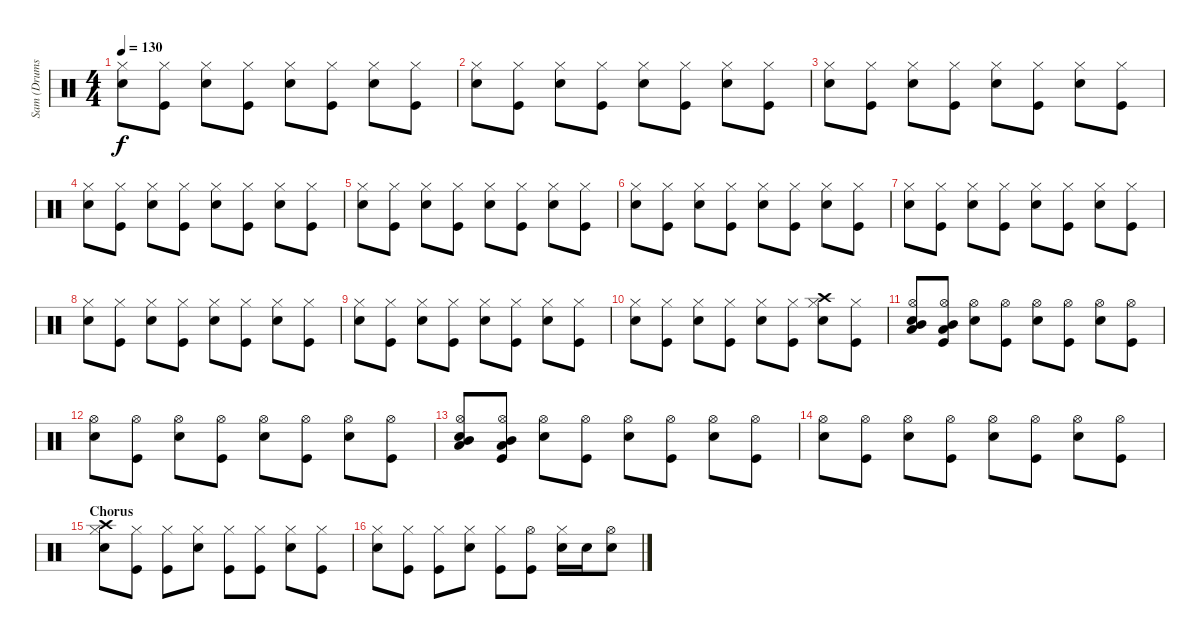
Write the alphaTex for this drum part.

\track ("Sam (Drums)" "Sam (Drums") {instrument percussion}
\staff {score}
\articulation defaults
\ts (4 4)
\tempo 130
\clef neutral
\ks c
("Hi-Hat (closed)" "Snare (hit) 2").8{dy f} ("Hi-Hat (closed)" "Kick (hit)").8 ("Hi-Hat (closed)" "Snare (hit) 2").8 ("Hi-Hat (closed)" "Kick (hit)").8 ("Hi-Hat (closed)" "Snare (hit) 2").8 ("Hi-Hat (closed)" "Kick (hit)").8 ("Hi-Hat (closed)" "Snare (hit) 2").8 ("Hi-Hat (closed)" "Kick (hit)").8 |
("Hi-Hat (closed)" "Snare (hit) 2").8 ("Hi-Hat (closed)" "Kick (hit)").8 ("Hi-Hat (closed)" "Snare (hit) 2").8 ("Hi-Hat (closed)" "Kick (hit)").8 ("Hi-Hat (closed)" "Snare (hit) 2").8 ("Hi-Hat (closed)" "Kick (hit)").8 ("Hi-Hat (closed)" "Snare (hit) 2").8 ("Hi-Hat (closed)" "Kick (hit)").8 |
("Hi-Hat (closed)" "Snare (hit) 2").8 ("Hi-Hat (closed)" "Kick (hit)").8 ("Hi-Hat (closed)" "Snare (hit) 2").8 ("Hi-Hat (closed)" "Kick (hit)").8 ("Hi-Hat (closed)" "Snare (hit) 2").8 ("Hi-Hat (closed)" "Kick (hit)").8 ("Hi-Hat (closed)" "Snare (hit) 2").8 ("Hi-Hat (closed)" "Kick (hit)").8 |
("Hi-Hat (closed)" "Snare (hit) 2").8 ("Hi-Hat (closed)" "Kick (hit)").8 ("Hi-Hat (closed)" "Snare (hit) 2").8 ("Hi-Hat (closed)" "Kick (hit)").8 ("Hi-Hat (closed)" "Snare (hit) 2").8 ("Hi-Hat (closed)" "Kick (hit)").8 ("Hi-Hat (closed)" "Snare (hit) 2").8 ("Hi-Hat (closed)" "Kick (hit)").8 |
("Hi-Hat (closed)" "Snare (hit) 2").8 ("Hi-Hat (closed)" "Kick (hit)").8 ("Hi-Hat (closed)" "Snare (hit) 2").8 ("Hi-Hat (closed)" "Kick (hit)").8 ("Hi-Hat (closed)" "Snare (hit) 2").8 ("Hi-Hat (closed)" "Kick (hit)").8 ("Hi-Hat (closed)" "Snare (hit) 2").8 ("Hi-Hat (closed)" "Kick (hit)").8 |
("Hi-Hat (closed)" "Snare (hit) 2").8 ("Hi-Hat (closed)" "Kick (hit)").8 ("Hi-Hat (closed)" "Snare (hit) 2").8 ("Hi-Hat (closed)" "Kick (hit)").8 ("Hi-Hat (closed)" "Snare (hit) 2").8 ("Hi-Hat (closed)" "Kick (hit)").8 ("Hi-Hat (closed)" "Snare (hit) 2").8 ("Hi-Hat (closed)" "Kick (hit)").8 |
("Hi-Hat (closed)" "Snare (hit) 2").8 ("Hi-Hat (closed)" "Kick (hit)").8 ("Hi-Hat (closed)" "Snare (hit) 2").8 ("Hi-Hat (closed)" "Kick (hit)").8 ("Hi-Hat (closed)" "Snare (hit) 2").8 ("Hi-Hat (closed)" "Kick (hit)").8 ("Hi-Hat (closed)" "Snare (hit) 2").8 ("Hi-Hat (closed)" "Kick (hit)").8 |
("Hi-Hat (closed)" "Snare (hit) 2").8 ("Hi-Hat (closed)" "Kick (hit)").8 ("Hi-Hat (closed)" "Snare (hit) 2").8 ("Hi-Hat (closed)" "Kick (hit)").8 ("Hi-Hat (closed)" "Snare (hit) 2").8 ("Hi-Hat (closed)" "Kick (hit)").8 ("Hi-Hat (closed)" "Snare (hit) 2").8 ("Hi-Hat (closed)" "Kick (hit)").8 |
("Hi-Hat (closed)" "Snare (hit) 2").8 ("Hi-Hat (closed)" "Kick (hit)").8 ("Hi-Hat (closed)" "Snare (hit) 2").8 ("Hi-Hat (closed)" "Kick (hit)").8 ("Hi-Hat (closed)" "Snare (hit) 2").8 ("Hi-Hat (closed)" "Kick (hit)").8 ("Hi-Hat (closed)" "Snare (hit) 2").8 ("Hi-Hat (closed)" "Kick (hit)").8 |
("Hi-Hat (closed)" "Snare (hit) 2").8 ("Hi-Hat (closed)" "Kick (hit)").8 ("Hi-Hat (closed)" "Snare (hit) 2").8 ("Hi-Hat (closed)" "Kick (hit)").8 ("Hi-Hat (closed)" "Snare (hit) 2").8 ("Hi-Hat (closed)" "Kick (hit)").8 ("Crash high (hit)" "Hi-Hat (closed)" "Snare (hit) 2").8 ("Hi-Hat (closed)" "Kick (hit)").8 |
("Hi-Hat (open)" "Low Tom (hit)" "Mid Tom (hit)" "Snare (hit) 2").8 ("Hi-Hat (open)" "Low Tom (hit)" "Mid Tom (hit)" "Kick (hit)").8 ("Hi-Hat (open)" "Snare (hit) 2").8 ("Hi-Hat (open)" "Kick (hit)").8 ("Hi-Hat (open)" "Snare (hit) 2").8 ("Hi-Hat (open)" "Kick (hit)").8 ("Hi-Hat (open)" "Snare (hit) 2").8 ("Hi-Hat (open)" "Kick (hit)").8 |
("Hi-Hat (open)" "Snare (hit) 2").8 ("Hi-Hat (open)" "Kick (hit)").8 ("Hi-Hat (open)" "Snare (hit) 2").8 ("Hi-Hat (open)" "Kick (hit)").8 ("Hi-Hat (open)" "Snare (hit) 2").8 ("Hi-Hat (open)" "Kick (hit)").8 ("Hi-Hat (open)" "Snare (hit) 2").8 ("Hi-Hat (open)" "Kick (hit)").8 |
("Hi-Hat (open)" "Low Tom (hit)" "Mid Tom (hit)" "Snare (hit) 2").8 ("Hi-Hat (open)" "Low Tom (hit)" "Mid Tom (hit)" "Kick (hit)").8 ("Hi-Hat (open)" "Snare (hit) 2").8 ("Hi-Hat (open)" "Kick (hit)").8 ("Hi-Hat (open)" "Snare (hit) 2").8 ("Hi-Hat (open)" "Kick (hit)").8 ("Hi-Hat (open)" "Snare (hit) 2").8 ("Hi-Hat (open)" "Kick (hit)").8 |
("Hi-Hat (open)" "Snare (hit) 2").8 ("Hi-Hat (open)" "Kick (hit)").8 ("Hi-Hat (open)" "Snare (hit) 2").8 ("Hi-Hat (open)" "Kick (hit)").8 ("Hi-Hat (open)" "Snare (hit) 2").8 ("Hi-Hat (open)" "Kick (hit)").8 ("Hi-Hat (open)" "Snare (hit) 2").8 ("Hi-Hat (open)" "Kick (hit)").8 |
\section ("" "Chorus")
("Crash high (hit)" "Hi-Hat (closed)" "Snare (hit) 2").8{volume 16} ("Hi-Hat (closed)" "Kick (hit)").8 ("Hi-Hat (closed)" "Kick (hit)").8 ("Hi-Hat (closed)" "Snare (hit) 2").8 ("Hi-Hat (closed)" "Kick (hit)").8 ("Hi-Hat (closed)" "Kick (hit)").8 ("Hi-Hat (closed)" "Snare (hit) 2").8 ("Hi-Hat (closed)" "Kick (hit)").8 |
("Hi-Hat (closed)" "Snare (hit) 2").8 ("Hi-Hat (closed)" "Kick (hit)").8 ("Hi-Hat (closed)" "Kick (hit)").8 ("Hi-Hat (closed)" "Snare (hit) 2").8 ("Hi-Hat (closed)" "Kick (hit)").8 ("Hi-Hat (open)" "Kick (hit)").8 ("Hi-Hat (closed)" "Snare (hit) 2").16 "Snare (hit) 2".16 ("Hi-Hat (open)" "Snare (hit) 2").8
